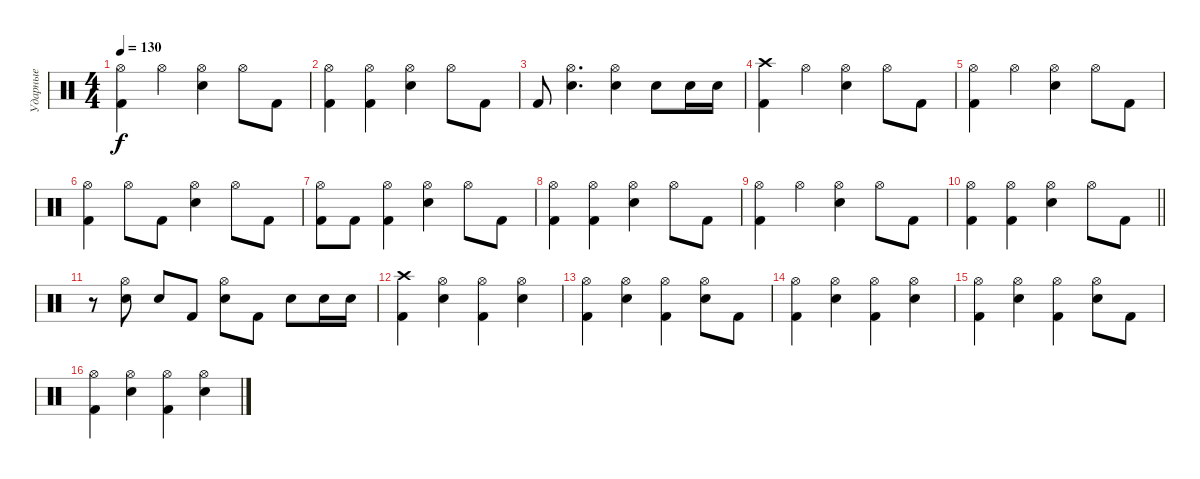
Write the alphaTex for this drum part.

\track ("Ударные" "Ударные") {instrument percussion}
\staff
\articulation defaults
\ts (4 4)
\tempo 130
\clef neutral
\ks c
("Kick (hit) 2" "Hi-Hat (open)").4{dy f} "Hi-Hat (open)".4 ("Snare (hit) 2" "Hi-Hat (open)").4 "Hi-Hat (open)".8 "Kick (hit) 2".8 |
("Kick (hit) 2" "Hi-Hat (open)").4 ("Kick (hit) 2" "Hi-Hat (open)").4 ("Snare (hit) 2" "Hi-Hat (open)").4 "Hi-Hat (open)".8 "Kick (hit) 2".8 |
"Kick (hit) 2".8 ("Snare (hit) 2" "Hi-Hat (open)").4{d} ("Snare (hit) 2" "Hi-Hat (open)").4 "Snare (hit) 2".8 "Snare (hit) 2".16 "Snare (hit) 2".16 |
("Kick (hit) 2" "Crash high (hit)").4 "Hi-Hat (open)".4 ("Snare (hit) 2" "Hi-Hat (open)").4 "Hi-Hat (open)".8 "Kick (hit) 2".8 |
("Kick (hit) 2" "Hi-Hat (open)").4 "Hi-Hat (open)".4 ("Snare (hit) 2" "Hi-Hat (open)").4 "Hi-Hat (open)".8 "Kick (hit) 2".8 |
("Kick (hit) 2" "Hi-Hat (open)").4 "Hi-Hat (open)".8 "Kick (hit) 2".8 ("Snare (hit) 2" "Hi-Hat (open)").4 "Hi-Hat (open)".8 "Kick (hit) 2".8 |
("Kick (hit) 2" "Hi-Hat (open)").8 "Kick (hit) 2".8 ("Kick (hit) 2" "Hi-Hat (open)").4 ("Snare (hit) 2" "Hi-Hat (open)").4 "Hi-Hat (open)".8 "Kick (hit) 2".8 |
("Kick (hit) 2" "Hi-Hat (open)").4 ("Kick (hit) 2" "Hi-Hat (open)").4 ("Snare (hit) 2" "Hi-Hat (open)").4 "Hi-Hat (open)".8 "Kick (hit) 2".8 |
("Kick (hit) 2" "Hi-Hat (open)").4 "Hi-Hat (open)".4 ("Snare (hit) 2" "Hi-Hat (open)").4 "Hi-Hat (open)".8 "Kick (hit) 2".8 |
\barLineRight lightlight
("Kick (hit) 2" "Hi-Hat (open)").4 ("Kick (hit) 2" "Hi-Hat (open)").4 ("Snare (hit) 2" "Hi-Hat (open)").4 "Hi-Hat (open)".8 "Kick (hit) 2".8 |
r.8 ("Snare (hit) 2" "Hi-Hat (open)").8 "Snare (hit) 2".8 "Kick (hit) 2".8 ("Snare (hit) 2" "Hi-Hat (open)").8 "Kick (hit) 2".8 "Snare (hit) 2".8 "Snare (hit) 2".16 "Snare (hit) 2".16 |
("Kick (hit) 2" "Crash high (hit)").4 ("Snare (hit) 2" "Hi-Hat (open)").4 ("Kick (hit) 2" "Hi-Hat (open)").4 ("Snare (hit) 2" "Hi-Hat (open)").4 |
("Kick (hit) 2" "Hi-Hat (open)").4 ("Snare (hit) 2" "Hi-Hat (open)").4 ("Kick (hit) 2" "Hi-Hat (open)").4 ("Snare (hit) 2" "Hi-Hat (open)").8 "Kick (hit) 2".8 |
("Kick (hit) 2" "Hi-Hat (open)").4 ("Snare (hit) 2" "Hi-Hat (open)").4 ("Kick (hit) 2" "Hi-Hat (open)").4 ("Snare (hit) 2" "Hi-Hat (open)").4 |
("Kick (hit) 2" "Hi-Hat (open)").4 ("Snare (hit) 2" "Hi-Hat (open)").4 ("Kick (hit) 2" "Hi-Hat (open)").4 ("Snare (hit) 2" "Hi-Hat (open)").8 "Kick (hit) 2".8 |
("Kick (hit) 2" "Hi-Hat (open)").4 ("Snare (hit) 2" "Hi-Hat (open)").4 ("Kick (hit) 2" "Hi-Hat (open)").4 ("Snare (hit) 2" "Hi-Hat (open)").4
